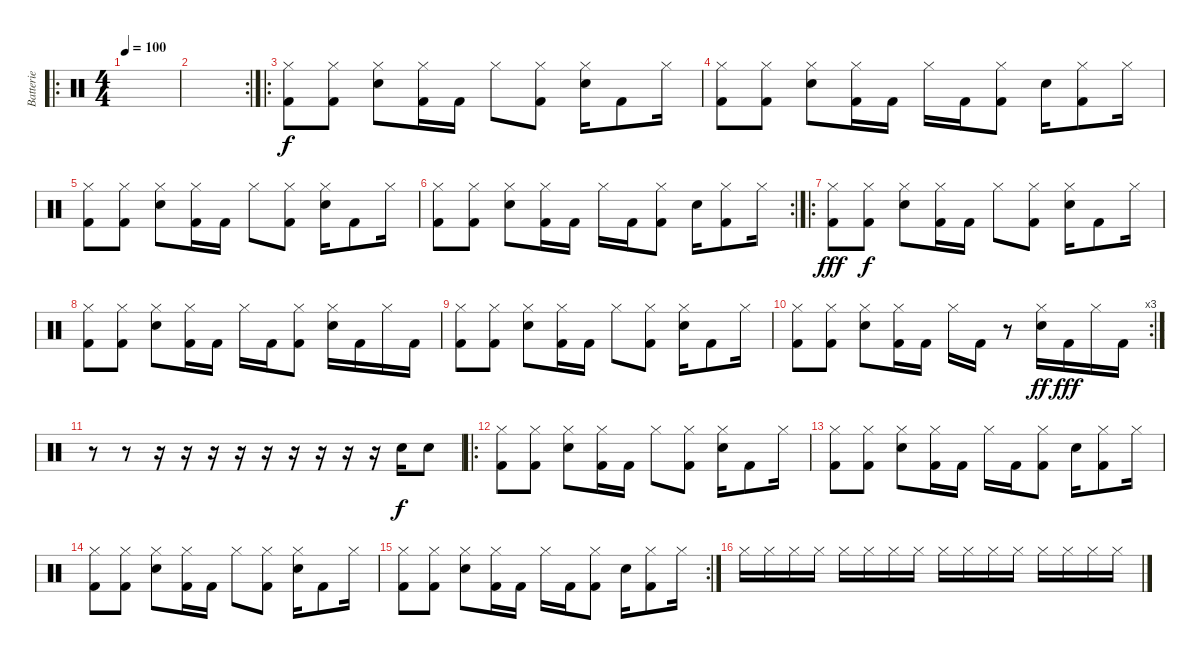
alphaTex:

\track ("Batterie" "Batterie") {instrument percussion}
\staff {score}
\articulation defaults
\ro
\ts (4 4)
\tempo 100
\clef neutral
\ks c
|
\rc 2
|
\ro
("Hi-Hat (closed)" "Kick (hit) 2").8 ("Hi-Hat (closed)" "Kick (hit) 2").8 ("Hi-Hat (closed)" "Snare (hit) 2").8 ("Hi-Hat (closed)" "Kick (hit) 2").16 "Kick (hit) 2".16 "Hi-Hat (closed)".8 ("Hi-Hat (closed)" "Kick (hit) 2").8 ("Hi-Hat (closed)" "Snare (hit) 2").16 "Kick (hit) 2".8 "Hi-Hat (closed)".16 |
("Hi-Hat (closed)" "Kick (hit) 2").8 ("Hi-Hat (closed)" "Kick (hit) 2").8 ("Hi-Hat (closed)" "Snare (hit) 2").8 ("Hi-Hat (closed)" "Kick (hit) 2").16 "Kick (hit) 2".16 "Hi-Hat (closed)".16 "Kick (hit) 2".16 ("Hi-Hat (closed)" "Kick (hit) 2").8 "Snare (hit) 2".16 ("Hi-Hat (closed)" "Kick (hit) 2").8 "Hi-Hat (closed)".16 |
("Hi-Hat (closed)" "Kick (hit) 2").8 ("Hi-Hat (closed)" "Kick (hit) 2").8 ("Hi-Hat (closed)" "Snare (hit) 2").8 ("Hi-Hat (closed)" "Kick (hit) 2").16 "Kick (hit) 2".16 "Hi-Hat (closed)".8 ("Hi-Hat (closed)" "Kick (hit) 2").8 ("Hi-Hat (closed)" "Snare (hit) 2").16 "Kick (hit) 2".8 "Hi-Hat (closed)".16 |
\rc 2
("Hi-Hat (closed)" "Kick (hit) 2").8 ("Hi-Hat (closed)" "Kick (hit) 2").8 ("Hi-Hat (closed)" "Snare (hit) 2").8 ("Hi-Hat (closed)" "Kick (hit) 2").16 "Kick (hit) 2".16 "Hi-Hat (closed)".16 "Kick (hit) 2".16 ("Hi-Hat (closed)" "Kick (hit) 2").8 "Snare (hit) 2".16 ("Hi-Hat (closed)" "Kick (hit) 2").8 "Hi-Hat (closed)".16 |
\ro
("Hi-Hat (closed)" "Kick (hit) 2").8{dy fff} ("Hi-Hat (closed)" "Kick (hit) 2").8{dy f} ("Hi-Hat (closed)" "Snare (hit) 2").8 ("Hi-Hat (closed)" "Kick (hit) 2").16 "Kick (hit) 2".16 "Hi-Hat (closed)".8 ("Hi-Hat (closed)" "Kick (hit) 2").8 ("Hi-Hat (closed)" "Snare (hit) 2").16 "Kick (hit) 2".8 "Hi-Hat (closed)".16 |
("Hi-Hat (closed)" "Kick (hit) 2").8 ("Hi-Hat (closed)" "Kick (hit) 2").8 ("Hi-Hat (closed)" "Snare (hit) 2").8 ("Hi-Hat (closed)" "Kick (hit) 2").16 "Kick (hit) 2".16 "Hi-Hat (closed)".16 "Kick (hit) 2".16 ("Hi-Hat (closed)" "Kick (hit) 2").8 ("Hi-Hat (closed)" "Snare (hit) 2").16 "Kick (hit) 2".16 "Hi-Hat (closed)".16 "Kick (hit) 2".16 |
("Hi-Hat (closed)" "Kick (hit) 2").8 ("Hi-Hat (closed)" "Kick (hit) 2").8 ("Hi-Hat (closed)" "Snare (hit) 2").8 ("Hi-Hat (closed)" "Kick (hit) 2").16 "Kick (hit) 2".16 "Hi-Hat (closed)".8 ("Hi-Hat (closed)" "Kick (hit) 2").8 ("Hi-Hat (closed)" "Snare (hit) 2").16 "Kick (hit) 2".8 "Hi-Hat (closed)".16 |
\rc 3
("Hi-Hat (closed)" "Kick (hit) 2").8 ("Hi-Hat (closed)" "Kick (hit) 2").8 ("Hi-Hat (closed)" "Snare (hit) 2").8 ("Hi-Hat (closed)" "Kick (hit) 2").16 "Kick (hit) 2".16 "Hi-Hat (closed)".16 "Kick (hit) 2".16 r.8 ("Hi-Hat (closed)" "Snare (hit) 2").16{dy ff} "Kick (hit) 2".16{dy fff} "Hi-Hat (closed)".16 "Kick (hit) 2".16 |
r.8 r.8 r.16 r.16 r.16 r.16 r.16 r.16 r.16 r.16 r.16 "Snare (hit) 2".16{dy f} "Snare (hit) 2".8 |
\ro
("Hi-Hat (closed)" "Kick (hit) 2").8 ("Hi-Hat (closed)" "Kick (hit) 2").8 ("Hi-Hat (closed)" "Snare (hit) 2").8 ("Hi-Hat (closed)" "Kick (hit) 2").16 "Kick (hit) 2".16 "Hi-Hat (closed)".8 ("Hi-Hat (closed)" "Kick (hit) 2").8 ("Hi-Hat (closed)" "Snare (hit) 2").16 "Kick (hit) 2".8 "Hi-Hat (closed)".16 |
("Hi-Hat (closed)" "Kick (hit) 2").8 ("Hi-Hat (closed)" "Kick (hit) 2").8 ("Hi-Hat (closed)" "Snare (hit) 2").8 ("Hi-Hat (closed)" "Kick (hit) 2").16 "Kick (hit) 2".16 "Hi-Hat (closed)".16 "Kick (hit) 2".16 ("Hi-Hat (closed)" "Kick (hit) 2").8 "Snare (hit) 2".16 ("Hi-Hat (closed)" "Kick (hit) 2").8 "Hi-Hat (closed)".16 |
("Hi-Hat (closed)" "Kick (hit) 2").8 ("Hi-Hat (closed)" "Kick (hit) 2").8 ("Hi-Hat (closed)" "Snare (hit) 2").8 ("Hi-Hat (closed)" "Kick (hit) 2").16 "Kick (hit) 2".16 "Hi-Hat (closed)".8 ("Hi-Hat (closed)" "Kick (hit) 2").8 ("Hi-Hat (closed)" "Snare (hit) 2").16 "Kick (hit) 2".8 "Hi-Hat (closed)".16 |
\rc 2
("Hi-Hat (closed)" "Kick (hit) 2").8 ("Hi-Hat (closed)" "Kick (hit) 2").8 ("Hi-Hat (closed)" "Snare (hit) 2").8 ("Hi-Hat (closed)" "Kick (hit) 2").16 "Kick (hit) 2".16 "Hi-Hat (closed)".16 "Kick (hit) 2".16 ("Hi-Hat (closed)" "Kick (hit) 2").8 "Snare (hit) 2".16 ("Hi-Hat (closed)" "Kick (hit) 2").8 "Hi-Hat (closed)".16 |
"Hi-Hat (closed)".16 "Hi-Hat (closed)".16 "Hi-Hat (closed)".16 "Hi-Hat (closed)".16 "Hi-Hat (closed)".16 "Hi-Hat (closed)".16 "Hi-Hat (closed)".16 "Hi-Hat (closed)".16 "Hi-Hat (closed)".16 "Hi-Hat (closed)".16 "Hi-Hat (closed)".16 "Hi-Hat (closed)".16 "Hi-Hat (closed)".16 "Hi-Hat (closed)".16 "Hi-Hat (closed)".16 "Hi-Hat (closed)".16
